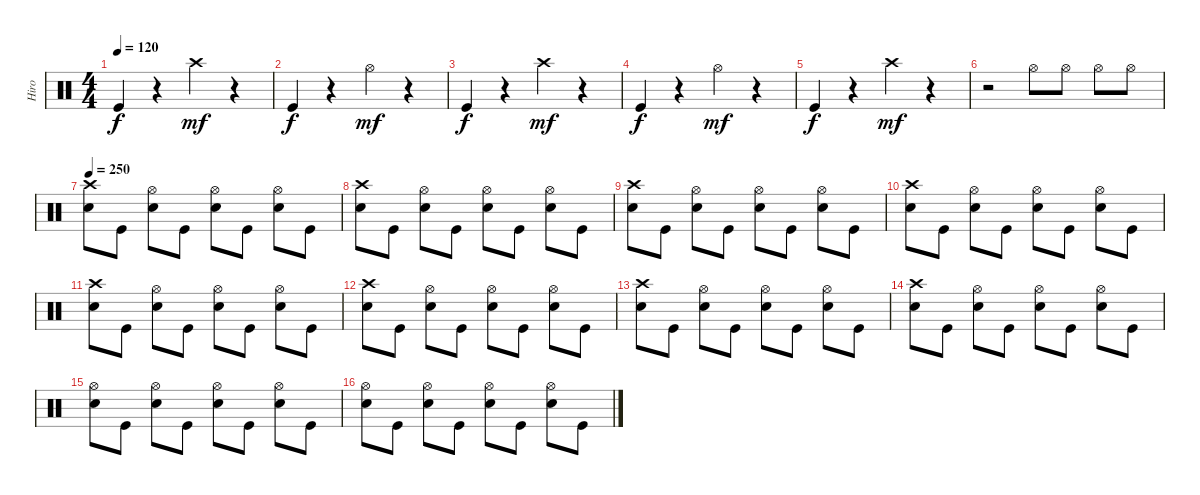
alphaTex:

\track ("Hiro" "Hiro") {instrument percussion}
\staff {score}
\articulation defaults
\ts (4 4)
\tempo 120
\clef neutral
\ks c "Kick (hit)".4{dy f}
r.4 "Crash high (hit)".4{dy mf} r.4 |
"Kick (hit)".4{dy f} r.4 "Hi-Hat (open)".4{dy mf} r.4 |
"Kick (hit)".4{dy f} r.4 "Crash high (hit)".4{dy mf} r.4 |
"Kick (hit)".4{dy f} r.4 "Hi-Hat (open)".4{dy mf} r.4 |
"Kick (hit)".4{dy f} r.4 "Crash high (hit)".4{dy mf} r.4 |
r.2 "Hi-Hat (open)".8 "Hi-Hat (open)".8 "Hi-Hat (open)".8 "Hi-Hat (open)".8 |
\tempo 250
("Crash high (hit)" "Electric Snare (hit)").8 "Kick (hit)".8 ("Hi-Hat (open)" "Electric Snare (hit)").8 "Kick (hit)".8 ("Hi-Hat (open)" "Electric Snare (hit)").8 "Kick (hit)".8 ("Hi-Hat (open)" "Electric Snare (hit)").8 "Kick (hit)".8 |
("Electric Snare (hit)" "Crash high (hit)").8 "Kick (hit)".8 ("Electric Snare (hit)" "Hi-Hat (open)").8 "Kick (hit)".8 ("Electric Snare (hit)" "Hi-Hat (open)").8 "Kick (hit)".8 ("Electric Snare (hit)" "Hi-Hat (open)").8 "Kick (hit)".8 |
("Electric Snare (hit)" "Crash high (hit)").8 "Kick (hit)".8 ("Electric Snare (hit)" "Hi-Hat (open)").8 "Kick (hit)".8 ("Electric Snare (hit)" "Hi-Hat (open)").8 "Kick (hit)".8 ("Electric Snare (hit)" "Hi-Hat (open)").8 "Kick (hit)".8 |
("Electric Snare (hit)" "Crash high (hit)").8 "Kick (hit)".8 ("Electric Snare (hit)" "Hi-Hat (open)").8 "Kick (hit)".8 ("Electric Snare (hit)" "Hi-Hat (open)").8 "Kick (hit)".8 ("Electric Snare (hit)" "Hi-Hat (open)").8 "Kick (hit)".8 |
("Electric Snare (hit)" "Crash high (hit)").8 "Kick (hit)".8 ("Electric Snare (hit)" "Hi-Hat (open)").8 "Kick (hit)".8 ("Electric Snare (hit)" "Hi-Hat (open)").8 "Kick (hit)".8 ("Electric Snare (hit)" "Hi-Hat (open)").8 "Kick (hit)".8 |
("Crash high (hit)" "Electric Snare (hit)").8 "Kick (hit)".8 ("Hi-Hat (open)" "Electric Snare (hit)").8 "Kick (hit)".8 ("Hi-Hat (open)" "Electric Snare (hit)").8 "Kick (hit)".8 ("Hi-Hat (open)" "Electric Snare (hit)").8 "Kick (hit)".8 |
("Crash high (hit)" "Electric Snare (hit)").8 "Kick (hit)".8 ("Hi-Hat (open)" "Electric Snare (hit)").8 "Kick (hit)".8 ("Hi-Hat (open)" "Electric Snare (hit)").8 "Kick (hit)".8 ("Hi-Hat (open)" "Electric Snare (hit)").8 "Kick (hit)".8 |
("Crash high (hit)" "Electric Snare (hit)").8 "Kick (hit)".8 ("Hi-Hat (open)" "Electric Snare (hit)").8 "Kick (hit)".8 ("Hi-Hat (open)" "Electric Snare (hit)").8 "Kick (hit)".8 ("Hi-Hat (open)" "Electric Snare (hit)").8 "Kick (hit)".8 |
("Hi-Hat (open)" "Electric Snare (hit)").8 "Kick (hit)".8 ("Hi-Hat (open)" "Electric Snare (hit)").8 "Kick (hit)".8 ("Hi-Hat (open)" "Electric Snare (hit)").8 "Kick (hit)".8 ("Hi-Hat (open)" "Electric Snare (hit)").8 "Kick (hit)".8 |
("Electric Snare (hit)" "Hi-Hat (open)").8 "Kick (hit)".8 ("Electric Snare (hit)" "Hi-Hat (open)").8 "Kick (hit)".8 ("Electric Snare (hit)" "Hi-Hat (open)").8 "Kick (hit)".8 ("Electric Snare (hit)" "Hi-Hat (open)").8 "Kick (hit)".8
